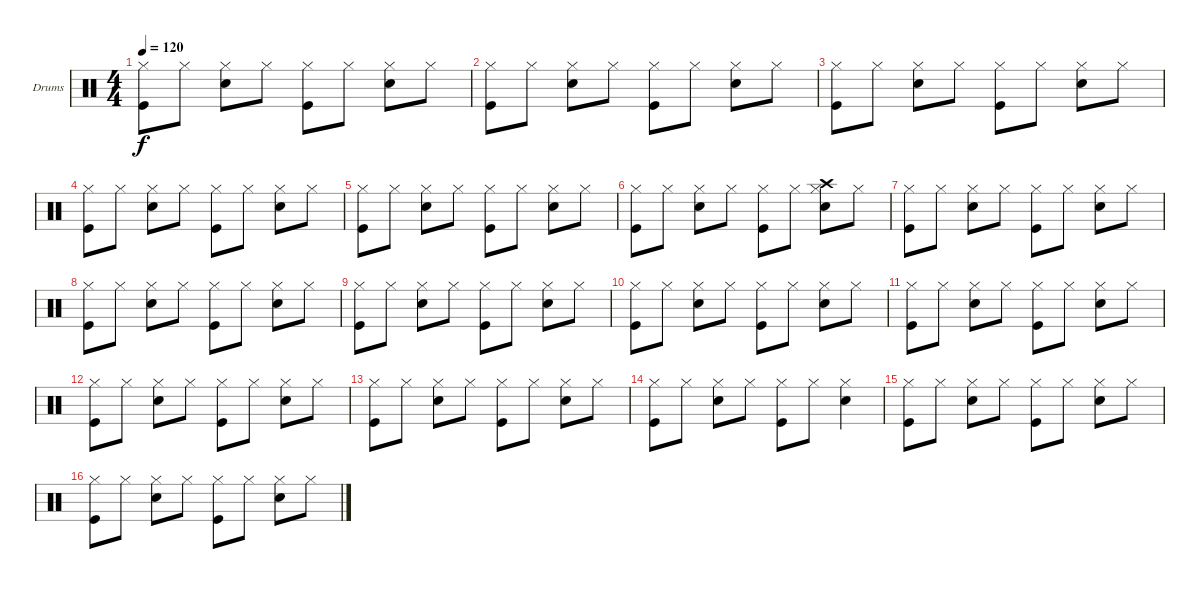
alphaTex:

\bracketExtendMode groupsimilarinstruments
\firstSystemTrackNameOrientation horizontal
\otherSystemsTrackNameOrientation horizontal
\track ("Drumkit" "Drums") {instrument percussion}
\staff {score}
\articulation defaults
\ts (4 4)
\tempo 120
\clef neutral
\ks c
("Hi-Hat (closed)" "Kick (hit)").8{dy f} "Hi-Hat (closed)".8 ("Hi-Hat (closed)" "Snare (hit) 2").8 "Hi-Hat (closed)".8 ("Hi-Hat (closed)" "Kick (hit)").8 "Hi-Hat (closed)".8 ("Hi-Hat (closed)" "Snare (hit) 2").8 "Hi-Hat (closed)".8 |
("Hi-Hat (closed)" "Kick (hit)").8 "Hi-Hat (closed)".8 ("Hi-Hat (closed)" "Snare (hit) 2").8 "Hi-Hat (closed)".8 ("Hi-Hat (closed)" "Kick (hit)").8 "Hi-Hat (closed)".8 ("Hi-Hat (closed)" "Snare (hit) 2").8 "Hi-Hat (closed)".8 |
("Hi-Hat (closed)" "Kick (hit)").8 "Hi-Hat (closed)".8 ("Hi-Hat (closed)" "Snare (hit) 2").8 "Hi-Hat (closed)".8 ("Hi-Hat (closed)" "Kick (hit)").8 "Hi-Hat (closed)".8 ("Hi-Hat (closed)" "Snare (hit) 2").8 "Hi-Hat (closed)".8 |
("Hi-Hat (closed)" "Kick (hit)").8 "Hi-Hat (closed)".8 ("Hi-Hat (closed)" "Snare (hit) 2").8 "Hi-Hat (closed)".8 ("Hi-Hat (closed)" "Kick (hit)").8 "Hi-Hat (closed)".8 ("Hi-Hat (closed)" "Snare (hit) 2").8 "Hi-Hat (closed)".8 |
("Hi-Hat (closed)" "Kick (hit)").8 "Hi-Hat (closed)".8 ("Hi-Hat (closed)" "Snare (hit) 2").8 "Hi-Hat (closed)".8 ("Hi-Hat (closed)" "Kick (hit)").8 "Hi-Hat (closed)".8 ("Hi-Hat (closed)" "Snare (hit) 2").8 "Hi-Hat (closed)".8 |
("Hi-Hat (closed)" "Kick (hit)").8 "Hi-Hat (closed)".8 ("Hi-Hat (closed)" "Snare (hit) 2").8 "Hi-Hat (closed)".8 ("Hi-Hat (closed)" "Kick (hit)").8 "Hi-Hat (closed)".8 ("Hi-Hat (closed)" "Snare (hit) 2" "Crash high (hit)").8 "Hi-Hat (closed)".8 |
("Hi-Hat (closed)" "Kick (hit)").8 "Hi-Hat (closed)".8 ("Hi-Hat (closed)" "Snare (hit) 2").8 "Hi-Hat (closed)".8 ("Hi-Hat (closed)" "Kick (hit)").8 "Hi-Hat (closed)".8 ("Hi-Hat (closed)" "Snare (hit) 2").8 "Hi-Hat (closed)".8 |
("Hi-Hat (closed)" "Kick (hit)").8 "Hi-Hat (closed)".8 ("Hi-Hat (closed)" "Snare (hit) 2").8 "Hi-Hat (closed)".8 ("Hi-Hat (closed)" "Kick (hit)").8 "Hi-Hat (closed)".8 ("Hi-Hat (closed)" "Snare (hit) 2").8 "Hi-Hat (closed)".8 |
("Hi-Hat (closed)" "Kick (hit)").8 "Hi-Hat (closed)".8 ("Hi-Hat (closed)" "Snare (hit) 2").8 "Hi-Hat (closed)".8 ("Hi-Hat (closed)" "Kick (hit)").8 "Hi-Hat (closed)".8 ("Hi-Hat (closed)" "Snare (hit) 2").8 "Hi-Hat (closed)".8 |
("Hi-Hat (closed)" "Kick (hit)").8 "Hi-Hat (closed)".8 ("Hi-Hat (closed)" "Snare (hit) 2").8 "Hi-Hat (closed)".8 ("Hi-Hat (closed)" "Kick (hit)").8 "Hi-Hat (closed)".8 ("Hi-Hat (closed)" "Snare (hit) 2").8 "Hi-Hat (closed)".8 |
("Hi-Hat (closed)" "Kick (hit)").8 "Hi-Hat (closed)".8 ("Hi-Hat (closed)" "Snare (hit) 2").8 "Hi-Hat (closed)".8 ("Hi-Hat (closed)" "Kick (hit)").8 "Hi-Hat (closed)".8 ("Hi-Hat (closed)" "Snare (hit) 2").8 "Hi-Hat (closed)".8 |
("Hi-Hat (closed)" "Kick (hit)").8 "Hi-Hat (closed)".8 ("Hi-Hat (closed)" "Snare (hit) 2").8 "Hi-Hat (closed)".8 ("Hi-Hat (closed)" "Kick (hit)").8 "Hi-Hat (closed)".8 ("Hi-Hat (closed)" "Snare (hit) 2").8 "Hi-Hat (closed)".8 |
("Hi-Hat (closed)" "Kick (hit)").8 "Hi-Hat (closed)".8 ("Hi-Hat (closed)" "Snare (hit) 2").8 "Hi-Hat (closed)".8 ("Hi-Hat (closed)" "Kick (hit)").8 "Hi-Hat (closed)".8 ("Hi-Hat (closed)" "Snare (hit) 2").8 "Hi-Hat (closed)".8 |
("Hi-Hat (closed)" "Kick (hit)").8 "Hi-Hat (closed)".8 ("Hi-Hat (closed)" "Snare (hit) 2").8 "Hi-Hat (closed)".8 ("Hi-Hat (closed)" "Kick (hit)").8 "Hi-Hat (closed)".8 ("Hi-Hat (closed)" "Snare (hit) 2").4 |
("Hi-Hat (closed)" "Kick (hit)").8 "Hi-Hat (closed)".8 ("Hi-Hat (closed)" "Snare (hit) 2").8 "Hi-Hat (closed)".8 ("Hi-Hat (closed)" "Kick (hit)").8 "Hi-Hat (closed)".8 ("Hi-Hat (closed)" "Snare (hit) 2").8 "Hi-Hat (closed)".8 |
("Hi-Hat (closed)" "Kick (hit)").8 "Hi-Hat (closed)".8 ("Hi-Hat (closed)" "Snare (hit) 2").8 "Hi-Hat (closed)".8 ("Hi-Hat (closed)" "Kick (hit)").8 "Hi-Hat (closed)".8 ("Hi-Hat (closed)" "Snare (hit) 2").8 "Hi-Hat (closed)".8
